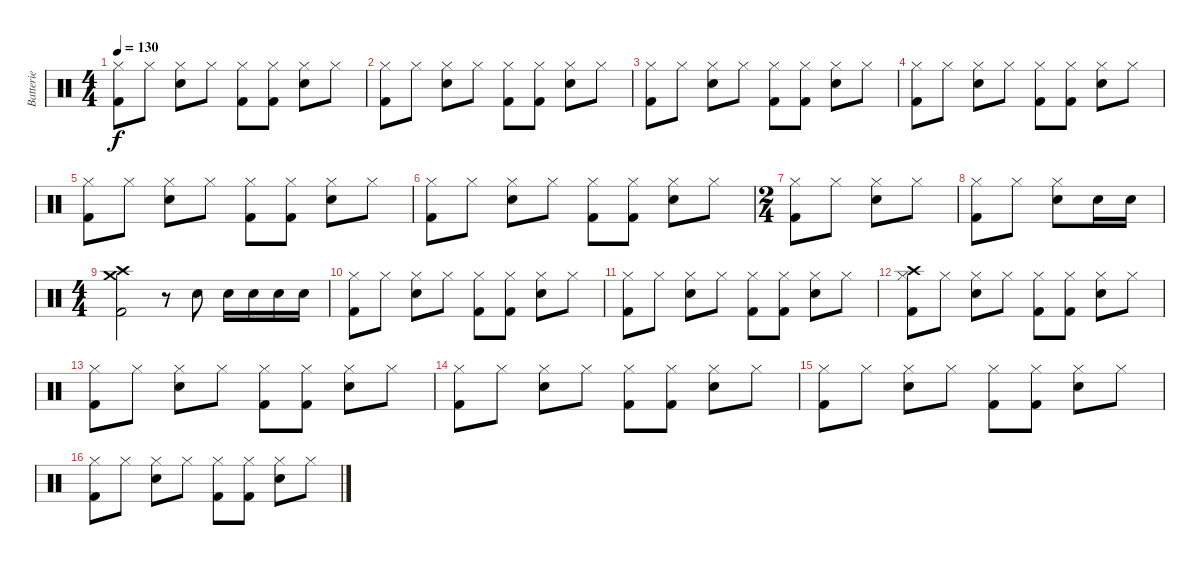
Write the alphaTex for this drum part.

\track ("Batterie" "Batterie") {instrument percussion}
\staff {score}
\articulation defaults
\ts (4 4)
\tempo 130
\clef neutral
\ks c
("Hi-Hat (closed)" "Kick (hit) 2").8{dy f} "Hi-Hat (closed)".8 ("Hi-Hat (closed)" "Snare (hit) 2").8 "Hi-Hat (closed)".8 ("Hi-Hat (closed)" "Kick (hit) 2").8 ("Hi-Hat (closed)" "Kick (hit) 2").8 ("Hi-Hat (closed)" "Snare (hit) 2").8 "Hi-Hat (closed)".8 |
("Hi-Hat (closed)" "Kick (hit) 2").8 "Hi-Hat (closed)".8 ("Hi-Hat (closed)" "Snare (hit) 2").8 "Hi-Hat (closed)".8 ("Hi-Hat (closed)" "Kick (hit) 2").8 ("Hi-Hat (closed)" "Kick (hit) 2").8 ("Hi-Hat (closed)" "Snare (hit) 2").8 "Hi-Hat (closed)".8 |
("Hi-Hat (closed)" "Kick (hit) 2").8 "Hi-Hat (closed)".8 ("Hi-Hat (closed)" "Snare (hit) 2").8 "Hi-Hat (closed)".8 ("Hi-Hat (closed)" "Kick (hit) 2").8 ("Hi-Hat (closed)" "Kick (hit) 2").8 ("Hi-Hat (closed)" "Snare (hit) 2").8 "Hi-Hat (closed)".8 |
("Hi-Hat (closed)" "Kick (hit) 2").8 "Hi-Hat (closed)".8 ("Hi-Hat (closed)" "Snare (hit) 2").8 "Hi-Hat (closed)".8 ("Hi-Hat (closed)" "Kick (hit) 2").8 ("Hi-Hat (closed)" "Kick (hit) 2").8 ("Hi-Hat (closed)" "Snare (hit) 2").8 "Hi-Hat (closed)".8 |
("Hi-Hat (closed)" "Kick (hit) 2").8 "Hi-Hat (closed)".8 ("Hi-Hat (closed)" "Snare (hit) 2").8 "Hi-Hat (closed)".8 ("Hi-Hat (closed)" "Kick (hit) 2").8 ("Hi-Hat (closed)" "Kick (hit) 2").8 ("Hi-Hat (closed)" "Snare (hit) 2").8 "Hi-Hat (closed)".8 |
("Hi-Hat (closed)" "Kick (hit) 2").8 "Hi-Hat (closed)".8 ("Hi-Hat (closed)" "Snare (hit) 2").8 "Hi-Hat (closed)".8 ("Hi-Hat (closed)" "Kick (hit) 2").8 ("Hi-Hat (closed)" "Kick (hit) 2").8 ("Hi-Hat (closed)" "Snare (hit) 2").8 "Hi-Hat (closed)".8 |
\ts (2 4)
("Hi-Hat (closed)" "Kick (hit) 2").8 "Hi-Hat (closed)".8 ("Hi-Hat (closed)" "Snare (hit) 2").8 "Hi-Hat (closed)".8 |
("Hi-Hat (closed)" "Kick (hit) 2").8 "Hi-Hat (closed)".8 ("Hi-Hat (closed)" "Snare (hit) 2").8 "Snare (hit) 2".16 "Snare (hit) 2".16 |
\ts (4 4)
("Crash high (hit)" "Crash medium (hit)" "Kick (hit) 2").2 r.8 "Snare (hit) 2".8 "Snare (hit) 2".16 "Snare (hit) 2".16 "Snare (hit) 2".16 "Snare (hit) 2".16 |
("Hi-Hat (closed)" "Kick (hit) 2").8 "Hi-Hat (closed)".8 ("Hi-Hat (closed)" "Snare (hit) 2").8 "Hi-Hat (closed)".8 ("Hi-Hat (closed)" "Kick (hit) 2").8 ("Hi-Hat (closed)" "Kick (hit) 2").8 ("Hi-Hat (closed)" "Snare (hit) 2").8 "Hi-Hat (closed)".8 |
("Hi-Hat (closed)" "Kick (hit) 2").8 "Hi-Hat (closed)".8 ("Hi-Hat (closed)" "Snare (hit) 2").8 "Hi-Hat (closed)".8 ("Hi-Hat (closed)" "Kick (hit) 2").8 ("Hi-Hat (closed)" "Kick (hit) 2").8 ("Hi-Hat (closed)" "Snare (hit) 2").8 "Hi-Hat (closed)".8 |
("Crash high (hit)" "Hi-Hat (closed)" "Kick (hit) 2").8 "Hi-Hat (closed)".8 ("Hi-Hat (closed)" "Snare (hit) 2").8 "Hi-Hat (closed)".8 ("Hi-Hat (closed)" "Kick (hit) 2").8 ("Hi-Hat (closed)" "Kick (hit) 2").8 ("Hi-Hat (closed)" "Snare (hit) 2").8 "Hi-Hat (closed)".8 |
("Hi-Hat (closed)" "Kick (hit) 2").8 "Hi-Hat (closed)".8 ("Hi-Hat (closed)" "Snare (hit) 2").8 "Hi-Hat (closed)".8 ("Hi-Hat (closed)" "Kick (hit) 2").8 ("Hi-Hat (closed)" "Kick (hit) 2").8 ("Hi-Hat (closed)" "Snare (hit) 2").8 "Hi-Hat (closed)".8 |
("Hi-Hat (closed)" "Kick (hit) 2").8 "Hi-Hat (closed)".8 ("Hi-Hat (closed)" "Snare (hit) 2").8 "Hi-Hat (closed)".8 ("Hi-Hat (closed)" "Kick (hit) 2").8 ("Hi-Hat (closed)" "Kick (hit) 2").8 ("Hi-Hat (closed)" "Snare (hit) 2").8 "Hi-Hat (closed)".8 |
("Hi-Hat (closed)" "Kick (hit) 2").8 "Hi-Hat (closed)".8 ("Hi-Hat (closed)" "Snare (hit) 2").8 "Hi-Hat (closed)".8 ("Hi-Hat (closed)" "Kick (hit) 2").8 ("Hi-Hat (closed)" "Kick (hit) 2").8 ("Hi-Hat (closed)" "Snare (hit) 2").8 "Hi-Hat (closed)".8 |
("Hi-Hat (closed)" "Kick (hit) 2").8 "Hi-Hat (closed)".8 ("Hi-Hat (closed)" "Snare (hit) 2").8 "Hi-Hat (closed)".8 ("Hi-Hat (closed)" "Kick (hit) 2").8 ("Hi-Hat (closed)" "Kick (hit) 2").8 ("Hi-Hat (closed)" "Snare (hit) 2").8 "Hi-Hat (closed)".8
